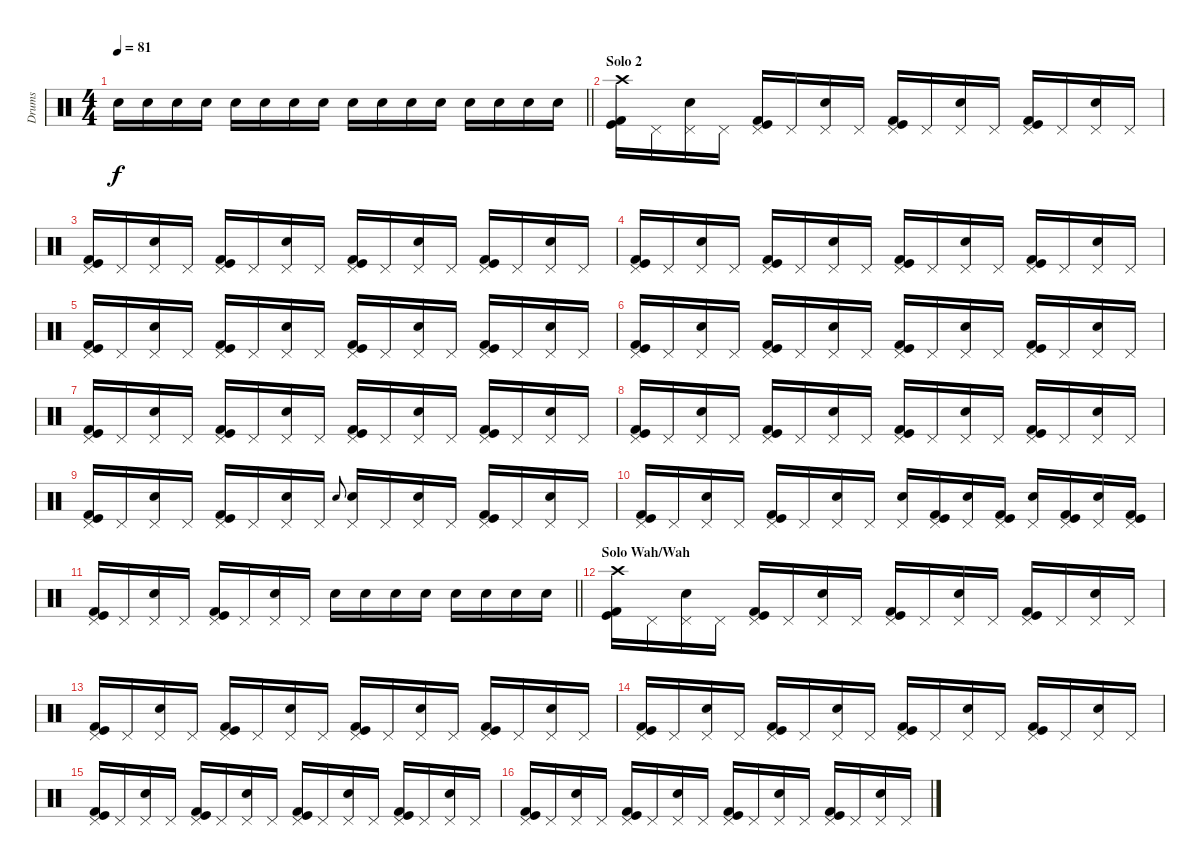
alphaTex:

\track ("Drums" "Drums") {instrument percussion}
\staff {score}
\articulation defaults
\ts (4 4)
\tempo 81
\clef neutral
\barLineRight lightlight
\ks c "Electric Snare (hit)".16{dy f} "Electric Snare (hit)".16 "Electric Snare (hit)".16 "Electric Snare (hit)".16 "Electric Snare (hit)".16 "Electric Snare (hit)".16 "Electric Snare (hit)".16 "Electric Snare (hit)".16 "Electric Snare (hit)".16 "Electric Snare (hit)".16 "Electric Snare (hit)".16 "Electric Snare (hit)".16 "Electric Snare (hit)".16 "Electric Snare (hit)".16 "Electric Snare (hit)".16 "Electric Snare (hit)".16
|
\section ("" "Solo 2")
("Crash high (hit)" "Kick (hit)" "Kick (hit) 2").16 "Pedal Hi-Hat (hit)".16 ("Pedal Hi-Hat (hit)" "Electric Snare (hit)").16 "Pedal Hi-Hat (hit)".16 ("Pedal Hi-Hat (hit)" "Kick (hit)" "Kick (hit) 2").16 "Pedal Hi-Hat (hit)".16 ("Pedal Hi-Hat (hit)" "Electric Snare (hit)").16 "Pedal Hi-Hat (hit)".16 ("Pedal Hi-Hat (hit)" "Kick (hit)" "Kick (hit) 2").16 "Pedal Hi-Hat (hit)".16 ("Pedal Hi-Hat (hit)" "Electric Snare (hit)").16 "Pedal Hi-Hat (hit)".16 ("Pedal Hi-Hat (hit)" "Kick (hit)" "Kick (hit) 2").16 "Pedal Hi-Hat (hit)".16 ("Pedal Hi-Hat (hit)" "Electric Snare (hit)").16 "Pedal Hi-Hat (hit)".16 |
("Pedal Hi-Hat (hit)" "Kick (hit)" "Kick (hit) 2").16 "Pedal Hi-Hat (hit)".16 ("Pedal Hi-Hat (hit)" "Electric Snare (hit)").16 "Pedal Hi-Hat (hit)".16 ("Pedal Hi-Hat (hit)" "Kick (hit)" "Kick (hit) 2").16 "Pedal Hi-Hat (hit)".16 ("Pedal Hi-Hat (hit)" "Electric Snare (hit)").16 "Pedal Hi-Hat (hit)".16 ("Pedal Hi-Hat (hit)" "Kick (hit)" "Kick (hit) 2").16 "Pedal Hi-Hat (hit)".16 ("Pedal Hi-Hat (hit)" "Electric Snare (hit)").16 "Pedal Hi-Hat (hit)".16 ("Pedal Hi-Hat (hit)" "Kick (hit)" "Kick (hit) 2").16 "Pedal Hi-Hat (hit)".16 ("Pedal Hi-Hat (hit)" "Electric Snare (hit)").16 "Pedal Hi-Hat (hit)".16 |
("Pedal Hi-Hat (hit)" "Kick (hit)" "Kick (hit) 2").16 "Pedal Hi-Hat (hit)".16 ("Pedal Hi-Hat (hit)" "Electric Snare (hit)").16 "Pedal Hi-Hat (hit)".16 ("Pedal Hi-Hat (hit)" "Kick (hit)" "Kick (hit) 2").16 "Pedal Hi-Hat (hit)".16 ("Pedal Hi-Hat (hit)" "Electric Snare (hit)").16 "Pedal Hi-Hat (hit)".16 ("Pedal Hi-Hat (hit)" "Kick (hit)" "Kick (hit) 2").16 "Pedal Hi-Hat (hit)".16 ("Pedal Hi-Hat (hit)" "Electric Snare (hit)").16 "Pedal Hi-Hat (hit)".16 ("Pedal Hi-Hat (hit)" "Kick (hit)" "Kick (hit) 2").16 "Pedal Hi-Hat (hit)".16 ("Pedal Hi-Hat (hit)" "Electric Snare (hit)").16 "Pedal Hi-Hat (hit)".16 |
("Pedal Hi-Hat (hit)" "Kick (hit)" "Kick (hit) 2").16 "Pedal Hi-Hat (hit)".16 ("Pedal Hi-Hat (hit)" "Electric Snare (hit)").16 "Pedal Hi-Hat (hit)".16 ("Pedal Hi-Hat (hit)" "Kick (hit)" "Kick (hit) 2").16 "Pedal Hi-Hat (hit)".16 ("Pedal Hi-Hat (hit)" "Electric Snare (hit)").16 "Pedal Hi-Hat (hit)".16 ("Pedal Hi-Hat (hit)" "Kick (hit)" "Kick (hit) 2").16 "Pedal Hi-Hat (hit)".16 ("Pedal Hi-Hat (hit)" "Electric Snare (hit)").16 "Pedal Hi-Hat (hit)".16 ("Pedal Hi-Hat (hit)" "Kick (hit)" "Kick (hit) 2").16 "Pedal Hi-Hat (hit)".16 ("Pedal Hi-Hat (hit)" "Electric Snare (hit)").16 "Pedal Hi-Hat (hit)".16 |
("Pedal Hi-Hat (hit)" "Kick (hit)" "Kick (hit) 2").16 "Pedal Hi-Hat (hit)".16 ("Pedal Hi-Hat (hit)" "Electric Snare (hit)").16 "Pedal Hi-Hat (hit)".16 ("Pedal Hi-Hat (hit)" "Kick (hit)" "Kick (hit) 2").16 "Pedal Hi-Hat (hit)".16 ("Pedal Hi-Hat (hit)" "Electric Snare (hit)").16 "Pedal Hi-Hat (hit)".16 ("Pedal Hi-Hat (hit)" "Kick (hit)" "Kick (hit) 2").16 "Pedal Hi-Hat (hit)".16 ("Pedal Hi-Hat (hit)" "Electric Snare (hit)").16 "Pedal Hi-Hat (hit)".16 ("Pedal Hi-Hat (hit)" "Kick (hit)" "Kick (hit) 2").16 "Pedal Hi-Hat (hit)".16 ("Pedal Hi-Hat (hit)" "Electric Snare (hit)").16 "Pedal Hi-Hat (hit)".16 |
("Pedal Hi-Hat (hit)" "Kick (hit)" "Kick (hit) 2").16 "Pedal Hi-Hat (hit)".16 ("Pedal Hi-Hat (hit)" "Electric Snare (hit)").16 "Pedal Hi-Hat (hit)".16 ("Pedal Hi-Hat (hit)" "Kick (hit)" "Kick (hit) 2").16 "Pedal Hi-Hat (hit)".16 ("Pedal Hi-Hat (hit)" "Electric Snare (hit)").16 "Pedal Hi-Hat (hit)".16 ("Pedal Hi-Hat (hit)" "Kick (hit)" "Kick (hit) 2").16 "Pedal Hi-Hat (hit)".16 ("Pedal Hi-Hat (hit)" "Electric Snare (hit)").16 "Pedal Hi-Hat (hit)".16 ("Pedal Hi-Hat (hit)" "Kick (hit)" "Kick (hit) 2").16 "Pedal Hi-Hat (hit)".16 ("Pedal Hi-Hat (hit)" "Electric Snare (hit)").16 "Pedal Hi-Hat (hit)".16 |
("Pedal Hi-Hat (hit)" "Kick (hit)" "Kick (hit) 2").16 "Pedal Hi-Hat (hit)".16 ("Pedal Hi-Hat (hit)" "Electric Snare (hit)").16 "Pedal Hi-Hat (hit)".16 ("Pedal Hi-Hat (hit)" "Kick (hit)" "Kick (hit) 2").16 "Pedal Hi-Hat (hit)".16 ("Pedal Hi-Hat (hit)" "Electric Snare (hit)").16 "Pedal Hi-Hat (hit)".16 ("Pedal Hi-Hat (hit)" "Kick (hit)" "Kick (hit) 2").16 "Pedal Hi-Hat (hit)".16 ("Pedal Hi-Hat (hit)" "Electric Snare (hit)").16 "Pedal Hi-Hat (hit)".16 ("Pedal Hi-Hat (hit)" "Kick (hit)" "Kick (hit) 2").16 "Pedal Hi-Hat (hit)".16 ("Pedal Hi-Hat (hit)" "Electric Snare (hit)").16 "Pedal Hi-Hat (hit)".16 |
("Pedal Hi-Hat (hit)" "Kick (hit)" "Kick (hit) 2").16 "Pedal Hi-Hat (hit)".16 ("Pedal Hi-Hat (hit)" "Electric Snare (hit)").16 "Pedal Hi-Hat (hit)".16 ("Pedal Hi-Hat (hit)" "Kick (hit)" "Kick (hit) 2").16 "Pedal Hi-Hat (hit)".16 ("Pedal Hi-Hat (hit)" "Electric Snare (hit)").16 "Pedal Hi-Hat (hit)".16 "Electric Snare (hit)".8{gr onbeat} ("Pedal Hi-Hat (hit)" "Electric Snare (hit)").16 "Pedal Hi-Hat (hit)".16 ("Pedal Hi-Hat (hit)" "Electric Snare (hit)").16 "Pedal Hi-Hat (hit)".16 ("Pedal Hi-Hat (hit)" "Kick (hit)" "Kick (hit) 2").16 "Pedal Hi-Hat (hit)".16 ("Pedal Hi-Hat (hit)" "Electric Snare (hit)").16 "Pedal Hi-Hat (hit)".16 |
("Pedal Hi-Hat (hit)" "Kick (hit)" "Kick (hit) 2").16 "Pedal Hi-Hat (hit)".16 ("Pedal Hi-Hat (hit)" "Electric Snare (hit)").16 "Pedal Hi-Hat (hit)".16 ("Pedal Hi-Hat (hit)" "Kick (hit)" "Kick (hit) 2").16 "Pedal Hi-Hat (hit)".16 ("Pedal Hi-Hat (hit)" "Electric Snare (hit)").16 "Pedal Hi-Hat (hit)".16 ("Pedal Hi-Hat (hit)" "Electric Snare (hit)").16 ("Pedal Hi-Hat (hit)" "Kick (hit)" "Kick (hit) 2").16 ("Pedal Hi-Hat (hit)" "Electric Snare (hit)").16 ("Pedal Hi-Hat (hit)" "Kick (hit)" "Kick (hit) 2").16 ("Pedal Hi-Hat (hit)" "Electric Snare (hit)").16 ("Pedal Hi-Hat (hit)" "Kick (hit)" "Kick (hit) 2").16 ("Pedal Hi-Hat (hit)" "Electric Snare (hit)").16 ("Pedal Hi-Hat (hit)" "Kick (hit)" "Kick (hit) 2").16 |
\barLineRight lightlight
("Pedal Hi-Hat (hit)" "Kick (hit)" "Kick (hit) 2").16 "Pedal Hi-Hat (hit)".16 ("Pedal Hi-Hat (hit)" "Electric Snare (hit)").16 "Pedal Hi-Hat (hit)".16 ("Pedal Hi-Hat (hit)" "Kick (hit)" "Kick (hit) 2").16 "Pedal Hi-Hat (hit)".16 ("Pedal Hi-Hat (hit)" "Electric Snare (hit)").16 "Pedal Hi-Hat (hit)".16 "Electric Snare (hit)".16 "Electric Snare (hit)".16 "Electric Snare (hit)".16 "Electric Snare (hit)".16 "Electric Snare (hit)".16 "Electric Snare (hit)".16 "Electric Snare (hit)".16 "Electric Snare (hit)".16 |
\section ("" "Solo Wah/Wah")
("Crash high (hit)" "Kick (hit)" "Kick (hit) 2").16 "Pedal Hi-Hat (hit)".16 ("Pedal Hi-Hat (hit)" "Electric Snare (hit)").16 "Pedal Hi-Hat (hit)".16 ("Pedal Hi-Hat (hit)" "Kick (hit)" "Kick (hit) 2").16 "Pedal Hi-Hat (hit)".16 ("Pedal Hi-Hat (hit)" "Electric Snare (hit)").16 "Pedal Hi-Hat (hit)".16 ("Pedal Hi-Hat (hit)" "Kick (hit)" "Kick (hit) 2").16 "Pedal Hi-Hat (hit)".16 ("Pedal Hi-Hat (hit)" "Electric Snare (hit)").16 "Pedal Hi-Hat (hit)".16 ("Pedal Hi-Hat (hit)" "Kick (hit)" "Kick (hit) 2").16 "Pedal Hi-Hat (hit)".16 ("Pedal Hi-Hat (hit)" "Electric Snare (hit)").16 "Pedal Hi-Hat (hit)".16 |
("Pedal Hi-Hat (hit)" "Kick (hit)" "Kick (hit) 2").16 "Pedal Hi-Hat (hit)".16 ("Pedal Hi-Hat (hit)" "Electric Snare (hit)").16 "Pedal Hi-Hat (hit)".16 ("Pedal Hi-Hat (hit)" "Kick (hit)" "Kick (hit) 2").16 "Pedal Hi-Hat (hit)".16 ("Pedal Hi-Hat (hit)" "Electric Snare (hit)").16 "Pedal Hi-Hat (hit)".16 ("Pedal Hi-Hat (hit)" "Kick (hit)" "Kick (hit) 2").16 "Pedal Hi-Hat (hit)".16 ("Pedal Hi-Hat (hit)" "Electric Snare (hit)").16 "Pedal Hi-Hat (hit)".16 ("Pedal Hi-Hat (hit)" "Kick (hit)" "Kick (hit) 2").16 "Pedal Hi-Hat (hit)".16 ("Pedal Hi-Hat (hit)" "Electric Snare (hit)").16 "Pedal Hi-Hat (hit)".16 |
("Pedal Hi-Hat (hit)" "Kick (hit)" "Kick (hit) 2").16 "Pedal Hi-Hat (hit)".16 ("Pedal Hi-Hat (hit)" "Electric Snare (hit)").16 "Pedal Hi-Hat (hit)".16 ("Pedal Hi-Hat (hit)" "Kick (hit)" "Kick (hit) 2").16 "Pedal Hi-Hat (hit)".16 ("Pedal Hi-Hat (hit)" "Electric Snare (hit)").16 "Pedal Hi-Hat (hit)".16 ("Pedal Hi-Hat (hit)" "Kick (hit)" "Kick (hit) 2").16 "Pedal Hi-Hat (hit)".16 ("Pedal Hi-Hat (hit)" "Electric Snare (hit)").16 "Pedal Hi-Hat (hit)".16 ("Pedal Hi-Hat (hit)" "Kick (hit)" "Kick (hit) 2").16 "Pedal Hi-Hat (hit)".16 ("Pedal Hi-Hat (hit)" "Electric Snare (hit)").16 "Pedal Hi-Hat (hit)".16 |
("Pedal Hi-Hat (hit)" "Kick (hit)" "Kick (hit) 2").16 "Pedal Hi-Hat (hit)".16 ("Pedal Hi-Hat (hit)" "Electric Snare (hit)").16 "Pedal Hi-Hat (hit)".16 ("Pedal Hi-Hat (hit)" "Kick (hit)" "Kick (hit) 2").16 "Pedal Hi-Hat (hit)".16 ("Pedal Hi-Hat (hit)" "Electric Snare (hit)").16 "Pedal Hi-Hat (hit)".16 ("Pedal Hi-Hat (hit)" "Kick (hit)" "Kick (hit) 2").16 "Pedal Hi-Hat (hit)".16 ("Pedal Hi-Hat (hit)" "Electric Snare (hit)").16 "Pedal Hi-Hat (hit)".16 ("Pedal Hi-Hat (hit)" "Kick (hit)" "Kick (hit) 2").16 "Pedal Hi-Hat (hit)".16 ("Pedal Hi-Hat (hit)" "Electric Snare (hit)").16 "Pedal Hi-Hat (hit)".16 |
("Pedal Hi-Hat (hit)" "Kick (hit)" "Kick (hit) 2").16 "Pedal Hi-Hat (hit)".16 ("Pedal Hi-Hat (hit)" "Electric Snare (hit)").16 "Pedal Hi-Hat (hit)".16 ("Pedal Hi-Hat (hit)" "Kick (hit)" "Kick (hit) 2").16 "Pedal Hi-Hat (hit)".16 ("Pedal Hi-Hat (hit)" "Electric Snare (hit)").16 "Pedal Hi-Hat (hit)".16 ("Pedal Hi-Hat (hit)" "Kick (hit)" "Kick (hit) 2").16 "Pedal Hi-Hat (hit)".16 ("Pedal Hi-Hat (hit)" "Electric Snare (hit)").16 "Pedal Hi-Hat (hit)".16 ("Pedal Hi-Hat (hit)" "Kick (hit)" "Kick (hit) 2").16 "Pedal Hi-Hat (hit)".16 ("Pedal Hi-Hat (hit)" "Electric Snare (hit)").16 "Pedal Hi-Hat (hit)".16
